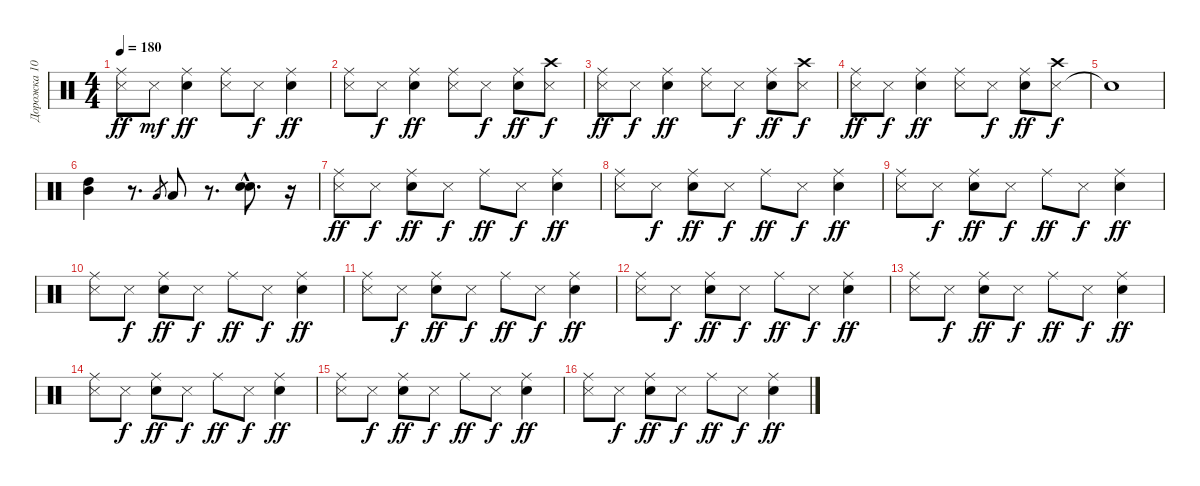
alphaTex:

\track ("Дорожка 10" "Дорожка 10") {instrument percussion}
\staff {score}
\articulation defaults
\ts (4 4)
\tempo 180
\clef neutral
\ks c
("Metronome (hit)" "Ride (middle)").8{dy ff} "Metronome (hit)".8{dy mf} ("Snare (hit) 2" "Ride (middle)").4{dy ff} ("Metronome (hit)" "Ride (middle)").8 "Metronome (hit)".8{dy f} ("Snare (hit) 2" "Ride (middle)").4{dy ff} |
("Metronome (hit)" "Ride (middle)").8 "Metronome (hit)".8{dy f} ("Snare (hit) 2" "Ride (middle)").4{dy ff} ("Metronome (hit)" "Ride (middle)").8 "Metronome (hit)".8{dy f} ("Snare (hit) 2" "Ride (middle)").8{dy ff} ("Metronome (hit)" "Crash high (hit)").8{dy f} |
("Metronome (hit)" "Ride (middle)").8{dy ff} "Metronome (hit)".8{dy f} ("Snare (hit) 2" "Ride (middle)").4{dy ff} ("Metronome (hit)" "Ride (middle)").8 "Metronome (hit)".8{dy f} ("Snare (hit) 2" "Ride (middle)").8{dy ff} ("Metronome (hit)" "Crash high (hit)").8{dy f} |
("Metronome (hit)" "Ride (middle)").8{dy ff} "Metronome (hit)".8{dy f} ("Snare (hit) 2" "Ride (middle)").4{dy ff} ("Metronome (hit)" "Ride (middle)").8 "Metronome (hit)".8{dy f} ("Snare (hit) 2" "Ride (middle)").8{dy ff} ("Metronome (hit)" "Crash high (hit)").8{dy f} |
"Snare (hit)"{t}.1 |
("High Tom (hit)" "Mid Tom (hit)").4 r.8{d} "Low Tom (hit)".8{gr} "Low Tom (hit)".8 r.8{d} ("Snare (hit) 2"{hac} "Electric Snare (hit)"{hac}).8{d} r.16 |
("Metronome (hit)" "Ride (middle)").8{dy ff} "Metronome (hit)".8{dy f} ("Snare (hit) 2" "Ride (middle)").8{dy ff} "Metronome (hit)".8{dy f} "Ride (middle)".8{dy ff} "Metronome (hit)".8{dy f} ("Snare (hit) 2" "Ride (middle)").4{dy ff} |
("Metronome (hit)" "Ride (middle)").8 "Metronome (hit)".8{dy f} ("Snare (hit) 2" "Ride (middle)").8{dy ff} "Metronome (hit)".8{dy f} "Ride (middle)".8{dy ff} "Metronome (hit)".8{dy f} ("Snare (hit) 2" "Ride (middle)").4{dy ff} |
("Metronome (hit)" "Ride (middle)").8 "Metronome (hit)".8{dy f} ("Snare (hit) 2" "Ride (middle)").8{dy ff} "Metronome (hit)".8{dy f} "Ride (middle)".8{dy ff} "Metronome (hit)".8{dy f} ("Snare (hit) 2" "Ride (middle)").4{dy ff} |
("Metronome (hit)" "Ride (middle)").8 "Metronome (hit)".8{dy f} ("Snare (hit) 2" "Ride (middle)").8{dy ff} "Metronome (hit)".8{dy f} "Ride (middle)".8{dy ff} "Metronome (hit)".8{dy f} ("Snare (hit) 2" "Ride (middle)").4{dy ff} |
("Metronome (hit)" "Ride (middle)").8 "Metronome (hit)".8{dy f} ("Snare (hit) 2" "Ride (middle)").8{dy ff} "Metronome (hit)".8{dy f} "Ride (middle)".8{dy ff} "Metronome (hit)".8{dy f} ("Snare (hit) 2" "Ride (middle)").4{dy ff} |
("Metronome (hit)" "Ride (middle)").8 "Metronome (hit)".8{dy f} ("Snare (hit) 2" "Ride (middle)").8{dy ff} "Metronome (hit)".8{dy f} "Ride (middle)".8{dy ff} "Metronome (hit)".8{dy f} ("Snare (hit) 2" "Ride (middle)").4{dy ff} |
("Metronome (hit)" "Ride (middle)").8 "Metronome (hit)".8{dy f} ("Snare (hit) 2" "Ride (middle)").8{dy ff} "Metronome (hit)".8{dy f} "Ride (middle)".8{dy ff} "Metronome (hit)".8{dy f} ("Snare (hit) 2" "Ride (middle)").4{dy ff} |
("Metronome (hit)" "Ride (middle)").8 "Metronome (hit)".8{dy f} ("Snare (hit) 2" "Ride (middle)").8{dy ff} "Metronome (hit)".8{dy f} "Ride (middle)".8{dy ff} "Metronome (hit)".8{dy f} ("Snare (hit) 2" "Ride (middle)").4{dy ff} |
("Metronome (hit)" "Ride (middle)").8 "Metronome (hit)".8{dy f} ("Snare (hit) 2" "Ride (middle)").8{dy ff} "Metronome (hit)".8{dy f} "Ride (middle)".8{dy ff} "Metronome (hit)".8{dy f} ("Snare (hit) 2" "Ride (middle)").4{dy ff} |
("Metronome (hit)" "Ride (middle)").8 "Metronome (hit)".8{dy f} ("Snare (hit) 2" "Ride (middle)").8{dy ff} "Metronome (hit)".8{dy f} "Ride (middle)".8{dy ff} "Metronome (hit)".8{dy f} ("Snare (hit) 2" "Ride (middle)").4{dy ff}
